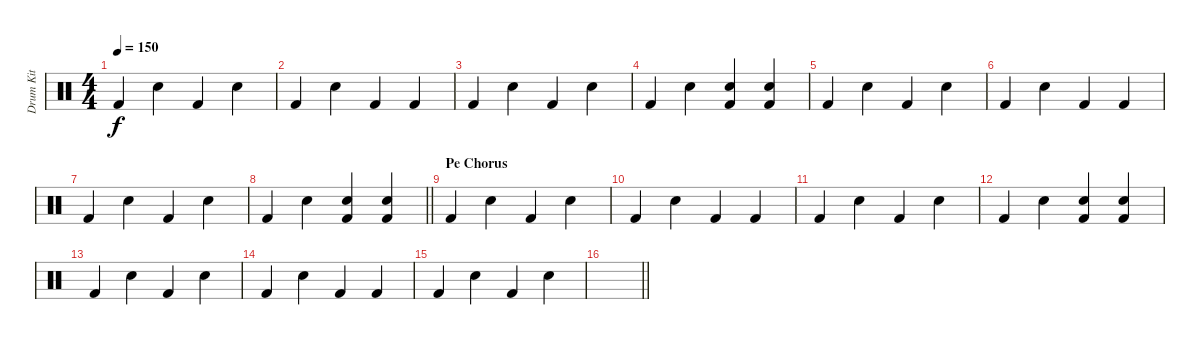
\track ("Drum Kit" "Drum Kit") {instrument percussion}
\staff {score}
\articulation defaults
\ts (4 4)
\tempo 150
\clef neutral
\ks c "Kick (hit) 2".4{dy f} "Snare (hit) 2".4 "Kick (hit) 2".4 "Snare (hit) 2".4
|
"Kick (hit) 2".4 "Snare (hit) 2".4 "Kick (hit) 2".4 "Kick (hit) 2".4 |
"Kick (hit) 2".4 "Snare (hit) 2".4 "Kick (hit) 2".4 "Snare (hit) 2".4 |
"Kick (hit) 2".4 "Snare (hit) 2".4 ("Snare (hit) 2" "Kick (hit) 2").4 ("Snare (hit) 2" "Kick (hit) 2").4 |
"Kick (hit) 2".4 "Snare (hit) 2".4 "Kick (hit) 2".4 "Snare (hit) 2".4 |
"Kick (hit) 2".4 "Snare (hit) 2".4 "Kick (hit) 2".4 "Kick (hit) 2".4 |
"Kick (hit) 2".4 "Snare (hit) 2".4 "Kick (hit) 2".4 "Snare (hit) 2".4 |
\barLineRight lightlight "Kick (hit) 2".4 "Snare (hit) 2".4
("Snare (hit) 2" "Kick (hit) 2").4 ("Snare (hit) 2" "Kick (hit) 2").4 |
\section ("" "Pe Chorus")
"Kick (hit) 2".4 "Snare (hit) 2".4 "Kick (hit) 2".4 "Snare (hit) 2".4 |
"Kick (hit) 2".4 "Snare (hit) 2".4 "Kick (hit) 2".4 "Kick (hit) 2".4 |
"Kick (hit) 2".4 "Snare (hit) 2".4 "Kick (hit) 2".4 "Snare (hit) 2".4 |
"Kick (hit) 2".4 "Snare (hit) 2".4 ("Snare (hit) 2" "Kick (hit) 2").4 ("Snare (hit) 2" "Kick (hit) 2").4 |
"Kick (hit) 2".4 "Snare (hit) 2".4 "Kick (hit) 2".4 "Snare (hit) 2".4 |
"Kick (hit) 2".4 "Snare (hit) 2".4 "Kick (hit) 2".4 "Kick (hit) 2".4 |
"Kick (hit) 2".4 "Snare (hit) 2".4 "Kick (hit) 2".4 "Snare (hit) 2".4 |
\barLineRight lightlight
